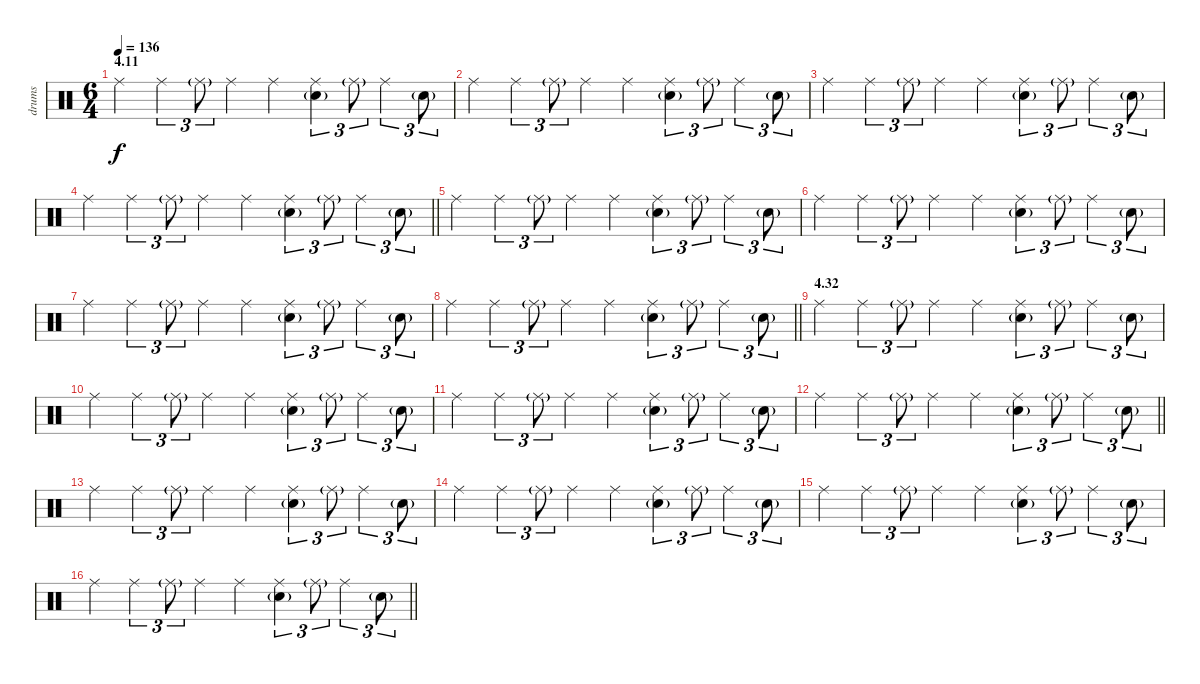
\track ("drums" "drums") {instrument percussion}
\staff {score}
\articulation defaults
\ts (6 4)
\section ("" "4.11")
\tempo 136
\clef neutral
\ks c "Ride (middle)".4{dy f} "Ride (middle)".4{tu (3 2)} "Ride (middle)"{g}.8{tu (3 2)} "Ride (middle)".4 "Ride (middle)".4
("Ride (middle)" "Electric Snare (hit)"{g}).4{tu (3 2)} "Ride (middle)"{g}.8{tu (3 2)} "Ride (middle)".4{tu (3 2)} "Electric Snare (hit)"{g}.8{tu (3 2)} |
"Ride (middle)".4 "Ride (middle)".4{tu (3 2)} "Ride (middle)"{g}.8{tu (3 2)} "Ride (middle)".4 "Ride (middle)".4 ("Ride (middle)" "Electric Snare (hit)"{g}).4{tu (3 2)} "Ride (middle)"{g}.8{tu (3 2)} "Ride (middle)".4{tu (3 2)} "Electric Snare (hit)"{g}.8{tu (3 2)} |
"Ride (middle)".4 "Ride (middle)".4{tu (3 2)} "Ride (middle)"{g}.8{tu (3 2)} "Ride (middle)".4 "Ride (middle)".4 ("Ride (middle)" "Electric Snare (hit)"{g}).4{tu (3 2)} "Ride (middle)"{g}.8{tu (3 2)} "Ride (middle)".4{tu (3 2)} "Electric Snare (hit)"{g}.8{tu (3 2)} |
\barLineRight lightlight "Ride (middle)".4 "Ride (middle)".4{tu (3 2)} "Ride (middle)"{g}.8{tu (3 2)} "Ride (middle)".4 "Ride (middle)".4
("Ride (middle)" "Electric Snare (hit)"{g}).4{tu (3 2)} "Ride (middle)"{g}.8{tu (3 2)} "Ride (middle)".4{tu (3 2)} "Electric Snare (hit)"{g}.8{tu (3 2)} |
"Ride (middle)".4 "Ride (middle)".4{tu (3 2)} "Ride (middle)"{g}.8{tu (3 2)} "Ride (middle)".4 "Ride (middle)".4 ("Ride (middle)" "Electric Snare (hit)"{g}).4{tu (3 2)} "Ride (middle)"{g}.8{tu (3 2)} "Ride (middle)".4{tu (3 2)} "Electric Snare (hit)"{g}.8{tu (3 2)} |
"Ride (middle)".4 "Ride (middle)".4{tu (3 2)} "Ride (middle)"{g}.8{tu (3 2)} "Ride (middle)".4 "Ride (middle)".4 ("Ride (middle)" "Electric Snare (hit)"{g}).4{tu (3 2)} "Ride (middle)"{g}.8{tu (3 2)} "Ride (middle)".4{tu (3 2)} "Electric Snare (hit)"{g}.8{tu (3 2)} |
"Ride (middle)".4 "Ride (middle)".4{tu (3 2)} "Ride (middle)"{g}.8{tu (3 2)} "Ride (middle)".4 "Ride (middle)".4 ("Ride (middle)" "Electric Snare (hit)"{g}).4{tu (3 2)} "Ride (middle)"{g}.8{tu (3 2)} "Ride (middle)".4{tu (3 2)} "Electric Snare (hit)"{g}.8{tu (3 2)} |
\barLineRight lightlight "Ride (middle)".4 "Ride (middle)".4{tu (3 2)} "Ride (middle)"{g}.8{tu (3 2)} "Ride (middle)".4 "Ride (middle)".4
("Ride (middle)" "Electric Snare (hit)"{g}).4{tu (3 2)} "Ride (middle)"{g}.8{tu (3 2)} "Ride (middle)".4{tu (3 2)} "Electric Snare (hit)"{g}.8{tu (3 2)} |
\section ("" "4.32")
"Ride (middle)".4 "Ride (middle)".4{tu (3 2)} "Ride (middle)"{g}.8{tu (3 2)} "Ride (middle)".4 "Ride (middle)".4 ("Ride (middle)" "Electric Snare (hit)"{g}).4{tu (3 2)} "Ride (middle)"{g}.8{tu (3 2)} "Ride (middle)".4{tu (3 2)} "Electric Snare (hit)"{g}.8{tu (3 2)} |
"Ride (middle)".4 "Ride (middle)".4{tu (3 2)} "Ride (middle)"{g}.8{tu (3 2)} "Ride (middle)".4 "Ride (middle)".4 ("Ride (middle)" "Electric Snare (hit)"{g}).4{tu (3 2)} "Ride (middle)"{g}.8{tu (3 2)} "Ride (middle)".4{tu (3 2)} "Electric Snare (hit)"{g}.8{tu (3 2)} |
"Ride (middle)".4 "Ride (middle)".4{tu (3 2)} "Ride (middle)"{g}.8{tu (3 2)} "Ride (middle)".4 "Ride (middle)".4 ("Ride (middle)" "Electric Snare (hit)"{g}).4{tu (3 2)} "Ride (middle)"{g}.8{tu (3 2)} "Ride (middle)".4{tu (3 2)} "Electric Snare (hit)"{g}.8{tu (3 2)} |
\barLineRight lightlight "Ride (middle)".4 "Ride (middle)".4{tu (3 2)} "Ride (middle)"{g}.8{tu (3 2)} "Ride (middle)".4 "Ride (middle)".4
("Ride (middle)" "Electric Snare (hit)"{g}).4{tu (3 2)} "Ride (middle)"{g}.8{tu (3 2)} "Ride (middle)".4{tu (3 2)} "Electric Snare (hit)"{g}.8{tu (3 2)} |
"Ride (middle)".4 "Ride (middle)".4{tu (3 2)} "Ride (middle)"{g}.8{tu (3 2)} "Ride (middle)".4 "Ride (middle)".4 ("Ride (middle)" "Electric Snare (hit)"{g}).4{tu (3 2)} "Ride (middle)"{g}.8{tu (3 2)} "Ride (middle)".4{tu (3 2)} "Electric Snare (hit)"{g}.8{tu (3 2)} |
"Ride (middle)".4 "Ride (middle)".4{tu (3 2)} "Ride (middle)"{g}.8{tu (3 2)} "Ride (middle)".4 "Ride (middle)".4 ("Ride (middle)" "Electric Snare (hit)"{g}).4{tu (3 2)} "Ride (middle)"{g}.8{tu (3 2)} "Ride (middle)".4{tu (3 2)} "Electric Snare (hit)"{g}.8{tu (3 2)} |
"Ride (middle)".4 "Ride (middle)".4{tu (3 2)} "Ride (middle)"{g}.8{tu (3 2)} "Ride (middle)".4 "Ride (middle)".4 ("Ride (middle)" "Electric Snare (hit)"{g}).4{tu (3 2)} "Ride (middle)"{g}.8{tu (3 2)} "Ride (middle)".4{tu (3 2)} "Electric Snare (hit)"{g}.8{tu (3 2)} |
\barLineRight lightlight "Ride (middle)".4 "Ride (middle)".4{tu (3 2)} "Ride (middle)"{g}.8{tu (3 2)} "Ride (middle)".4 "Ride (middle)".4
("Ride (middle)" "Electric Snare (hit)"{g}).4{tu (3 2)} "Ride (middle)"{g}.8{tu (3 2)} "Ride (middle)".4{tu (3 2)} "Electric Snare (hit)"{g}.8{tu (3 2)}
